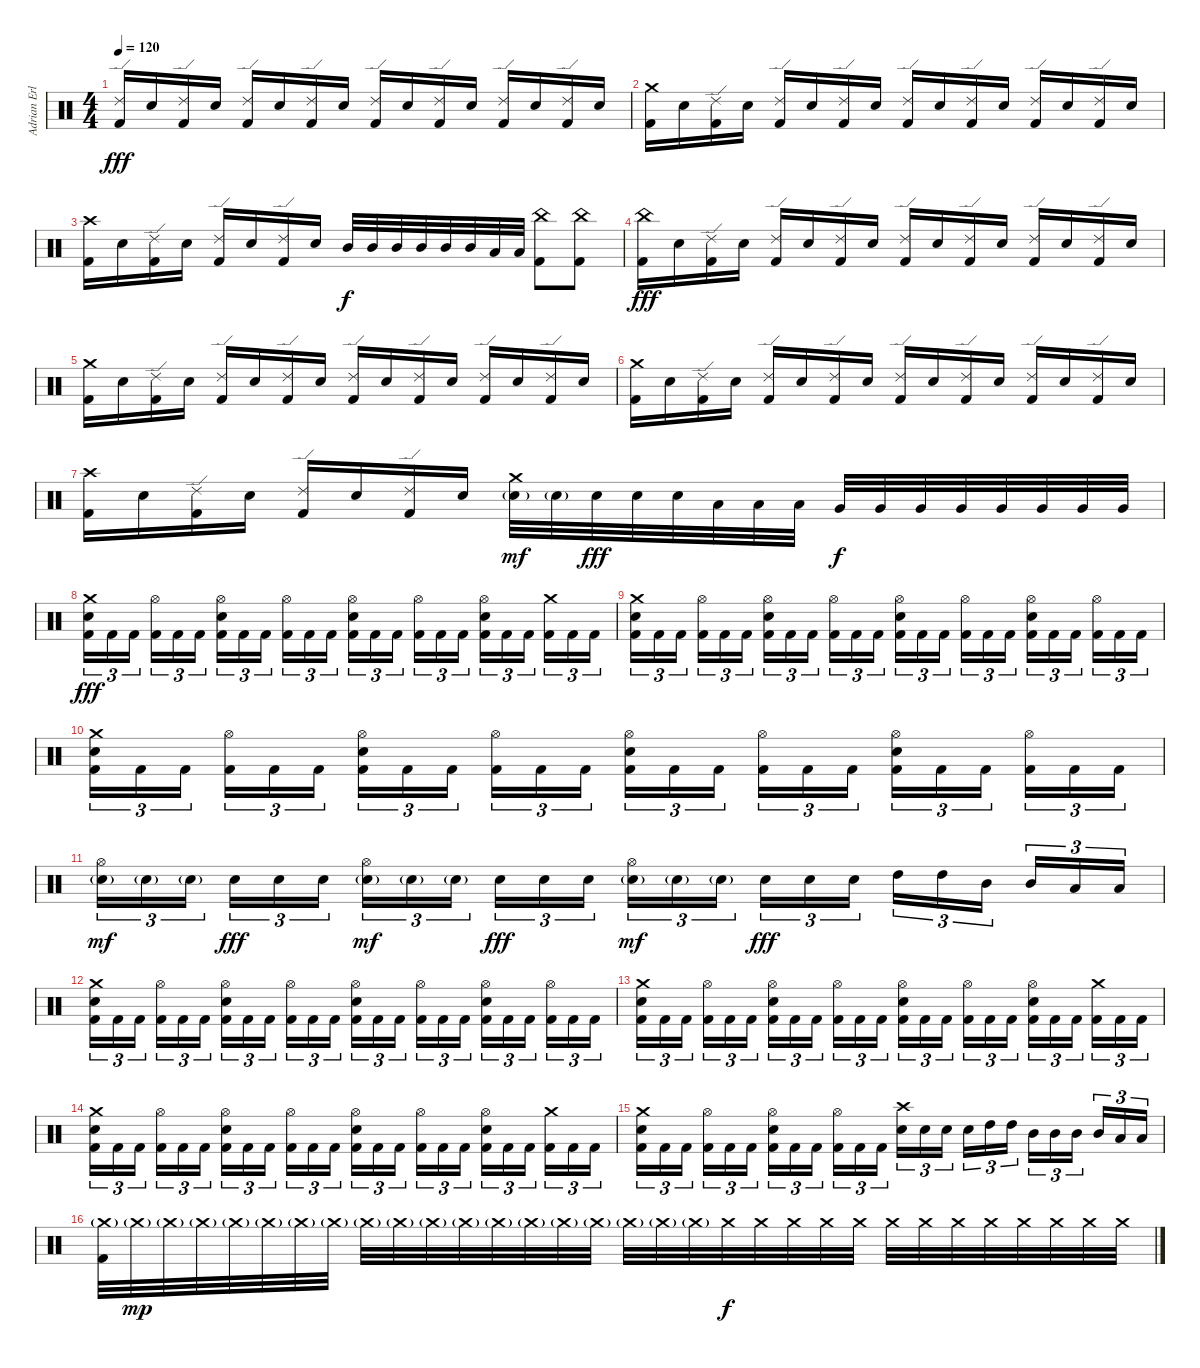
\track ("Adrian Erlandsson" "Adrian Erl") {instrument percussion}
\staff {score}
\articulation defaults
\ts (4 4)
\tempo 120
\clef neutral
\ks c
("Ride (edge) 2" "Kick (hit) 2").16{dy fff} "Electric Snare (hit)".16 ("Ride (edge) 2" "Kick (hit) 2").16 "Electric Snare (hit)".16 ("Ride (edge) 2" "Kick (hit) 2").16 "Electric Snare (hit)".16 ("Ride (edge) 2" "Kick (hit) 2").16 "Electric Snare (hit)".16 ("Ride (edge) 2" "Kick (hit) 2").16 "Electric Snare (hit)".16 ("Ride (edge) 2" "Kick (hit) 2").16 "Electric Snare (hit)".16 ("Ride (edge) 2" "Kick (hit) 2").16 "Electric Snare (hit)".16 ("Ride (edge) 2" "Kick (hit) 2").16 "Electric Snare (hit)".16 |
("Crash medium (hit)" "Kick (hit) 2").16 "Electric Snare (hit)".16 ("Ride (edge) 2" "Kick (hit) 2").16 "Electric Snare (hit)".16 ("Ride (edge) 2" "Kick (hit) 2").16 "Electric Snare (hit)".16 ("Ride (edge) 2" "Kick (hit) 2").16 "Electric Snare (hit)".16 ("Ride (edge) 2" "Kick (hit) 2").16 "Electric Snare (hit)".16 ("Ride (edge) 2" "Kick (hit) 2").16 "Electric Snare (hit)".16 ("Ride (edge) 2" "Kick (hit) 2").16 "Electric Snare (hit)".16 ("Ride (edge) 2" "Kick (hit) 2").16 "Electric Snare (hit)".16 |
("Crash high (hit)" "Kick (hit) 2").16 "Electric Snare (hit)".16 ("Ride (edge) 2" "Kick (hit) 2").16 "Electric Snare (hit)".16 ("Ride (edge) 2" "Kick (hit) 2").16 "Electric Snare (hit)".16 ("Ride (edge) 2" "Kick (hit) 2").16 "Electric Snare (hit)".16 "Mid Tom (hit)".32{dy f} "Mid Tom (hit)".32 "Mid Tom (hit)".32 "Mid Tom (hit)".32 "Mid Tom (hit)".32 "Mid Tom (hit)".32 "Low Tom (hit)".32 "Low Tom (hit)".32 ("China (hit)" "Kick (hit) 2").8 ("China (hit)" "Kick (hit) 2").8 |
("China (hit)" "Kick (hit) 2").16{dy fff} "Electric Snare (hit)".16 ("Ride (edge) 2" "Kick (hit) 2").16 "Electric Snare (hit)".16 ("Ride (edge) 2" "Kick (hit) 2").16 "Electric Snare (hit)".16 ("Ride (edge) 2" "Kick (hit) 2").16 "Electric Snare (hit)".16 ("Ride (edge) 2" "Kick (hit) 2").16 "Electric Snare (hit)".16 ("Ride (edge) 2" "Kick (hit) 2").16 "Electric Snare (hit)".16 ("Ride (edge) 2" "Kick (hit) 2").16 "Electric Snare (hit)".16 ("Ride (edge) 2" "Kick (hit) 2").16 "Electric Snare (hit)".16 |
("Crash medium (hit)" "Kick (hit) 2").16 "Electric Snare (hit)".16 ("Ride (edge) 2" "Kick (hit) 2").16 "Electric Snare (hit)".16 ("Ride (edge) 2" "Kick (hit) 2").16 "Electric Snare (hit)".16 ("Ride (edge) 2" "Kick (hit) 2").16 "Electric Snare (hit)".16 ("Ride (edge) 2" "Kick (hit) 2").16 "Electric Snare (hit)".16 ("Ride (edge) 2" "Kick (hit) 2").16 "Electric Snare (hit)".16 ("Ride (edge) 2" "Kick (hit) 2").16 "Electric Snare (hit)".16 ("Ride (edge) 2" "Kick (hit) 2").16 "Electric Snare (hit)".16 |
("Crash medium (hit)" "Kick (hit) 2").16 "Electric Snare (hit)".16 ("Ride (edge) 2" "Kick (hit) 2").16 "Electric Snare (hit)".16 ("Ride (edge) 2" "Kick (hit) 2").16 "Electric Snare (hit)".16 ("Ride (edge) 2" "Kick (hit) 2").16 "Electric Snare (hit)".16 ("Ride (edge) 2" "Kick (hit) 2").16 "Electric Snare (hit)".16 ("Ride (edge) 2" "Kick (hit) 2").16 "Electric Snare (hit)".16 ("Ride (edge) 2" "Kick (hit) 2").16 "Electric Snare (hit)".16 ("Ride (edge) 2" "Kick (hit) 2").16 "Electric Snare (hit)".16 |
("Crash high (hit)" "Kick (hit) 2").16 "Electric Snare (hit)".16 ("Ride (edge) 2" "Kick (hit) 2").16 "Electric Snare (hit)".16 ("Ride (edge) 2" "Kick (hit) 2").16 "Electric Snare (hit)".16 ("Ride (edge) 2" "Kick (hit) 2").16 "Electric Snare (hit)".16 ("Crash medium (hit)" "Electric Snare (hit)"{g}).32{dy mf} "Electric Snare (hit)"{g}.32 "Electric Snare (hit)".32{dy fff} "Electric Snare (hit)".32 "Electric Snare (hit)".32 "Low Tom (hit)".32 "Low Tom (hit)".32 "Low Tom (hit)".32 "Very Low Tom (hit)".32{dy f} "Very Low Tom (hit)".32 "Very Low Tom (hit)".32 "Very Low Tom (hit)".32 "Very Low Tom (hit)".32 "Very Low Tom (hit)".32 "Very Low Tom (hit)".32 "Very Low Tom (hit)".32 |
("Crash medium (hit)" "Electric Snare (hit)" "Kick (hit) 2").16{tu (3 2) dy fff} "Kick (hit) 2".16{tu (3 2)} "Kick (hit) 2".16{tu (3 2) beam splitsecondary} ("Hi-Hat (open)" "Kick (hit) 2").16{tu (3 2)} "Kick (hit) 2".16{tu (3 2)} "Kick (hit) 2".16{tu (3 2)} ("Hi-Hat (open)" "Electric Snare (hit)" "Kick (hit) 2").16{tu (3 2)} "Kick (hit) 2".16{tu (3 2)} "Kick (hit) 2".16{tu (3 2) beam splitsecondary} ("Hi-Hat (open)" "Kick (hit) 2").16{tu (3 2)} "Kick (hit) 2".16{tu (3 2)} "Kick (hit) 2".16{tu (3 2)} ("Hi-Hat (open)" "Electric Snare (hit)" "Kick (hit) 2").16{tu (3 2)} "Kick (hit) 2".16{tu (3 2)} "Kick (hit) 2".16{tu (3 2) beam splitsecondary} ("Hi-Hat (open)" "Kick (hit) 2").16{tu (3 2)} "Kick (hit) 2".16{tu (3 2)} "Kick (hit) 2".16{tu (3 2)} ("Hi-Hat (open)" "Electric Snare (hit)" "Kick (hit) 2").16{tu (3 2)} "Kick (hit) 2".16{tu (3 2)} "Kick (hit) 2".16{tu (3 2) beam splitsecondary} ("Crash medium (hit)" "Kick (hit) 2").16{tu (3 2)} "Kick (hit) 2".16{tu (3 2)} "Kick (hit) 2".16{tu (3 2)} |
("Crash medium (hit)" "Electric Snare (hit)" "Kick (hit) 2").16{tu (3 2)} "Kick (hit) 2".16{tu (3 2)} "Kick (hit) 2".16{tu (3 2) beam splitsecondary} ("Hi-Hat (open)" "Kick (hit) 2").16{tu (3 2)} "Kick (hit) 2".16{tu (3 2)} "Kick (hit) 2".16{tu (3 2)} ("Hi-Hat (open)" "Electric Snare (hit)" "Kick (hit) 2").16{tu (3 2)} "Kick (hit) 2".16{tu (3 2)} "Kick (hit) 2".16{tu (3 2) beam splitsecondary} ("Hi-Hat (open)" "Kick (hit) 2").16{tu (3 2)} "Kick (hit) 2".16{tu (3 2)} "Kick (hit) 2".16{tu (3 2)} ("Hi-Hat (open)" "Electric Snare (hit)" "Kick (hit) 2").16{tu (3 2)} "Kick (hit) 2".16{tu (3 2)} "Kick (hit) 2".16{tu (3 2) beam splitsecondary} ("Hi-Hat (open)" "Kick (hit) 2").16{tu (3 2)} "Kick (hit) 2".16{tu (3 2)} "Kick (hit) 2".16{tu (3 2)} ("Hi-Hat (open)" "Electric Snare (hit)" "Kick (hit) 2").16{tu (3 2)} "Kick (hit) 2".16{tu (3 2)} "Kick (hit) 2".16{tu (3 2) beam splitsecondary} ("Hi-Hat (open)" "Kick (hit) 2").16{tu (3 2)} "Kick (hit) 2".16{tu (3 2)} "Kick (hit) 2".16{tu (3 2)} |
("Crash medium (hit)" "Electric Snare (hit)" "Kick (hit) 2").16{tu (3 2)} "Kick (hit) 2".16{tu (3 2)} "Kick (hit) 2".16{tu (3 2) beam splitsecondary} ("Hi-Hat (open)" "Kick (hit) 2").16{tu (3 2)} "Kick (hit) 2".16{tu (3 2)} "Kick (hit) 2".16{tu (3 2)} ("Hi-Hat (open)" "Electric Snare (hit)" "Kick (hit) 2").16{tu (3 2)} "Kick (hit) 2".16{tu (3 2)} "Kick (hit) 2".16{tu (3 2) beam splitsecondary} ("Hi-Hat (open)" "Kick (hit) 2").16{tu (3 2)} "Kick (hit) 2".16{tu (3 2)} "Kick (hit) 2".16{tu (3 2)} ("Hi-Hat (open)" "Electric Snare (hit)" "Kick (hit) 2").16{tu (3 2)} "Kick (hit) 2".16{tu (3 2)} "Kick (hit) 2".16{tu (3 2) beam splitsecondary} ("Hi-Hat (open)" "Kick (hit) 2").16{tu (3 2)} "Kick (hit) 2".16{tu (3 2)} "Kick (hit) 2".16{tu (3 2)} ("Hi-Hat (open)" "Electric Snare (hit)" "Kick (hit) 2").16{tu (3 2)} "Kick (hit) 2".16{tu (3 2)} "Kick (hit) 2".16{tu (3 2) beam splitsecondary} ("Hi-Hat (open)" "Kick (hit) 2").16{tu (3 2)} "Kick (hit) 2".16{tu (3 2)} "Kick (hit) 2".16{tu (3 2)} |
("Hi-Hat (open)" "Electric Snare (hit)"{g}).16{tu (3 2) dy mf} "Electric Snare (hit)"{g}.16{tu (3 2)} "Electric Snare (hit)"{g}.16{tu (3 2) beam splitsecondary} "Electric Snare (hit)".16{tu (3 2) dy fff} "Electric Snare (hit)".16{tu (3 2)} "Electric Snare (hit)".16{tu (3 2)} ("Hi-Hat (open)" "Electric Snare (hit)"{g}).16{tu (3 2) dy mf} "Electric Snare (hit)"{g}.16{tu (3 2)} "Electric Snare (hit)"{g}.16{tu (3 2) beam splitsecondary} "Electric Snare (hit)".16{tu (3 2) dy fff} "Electric Snare (hit)".16{tu (3 2)} "Electric Snare (hit)".16{tu (3 2)} ("Hi-Hat (open)" "Electric Snare (hit)"{g}).16{tu (3 2) dy mf} "Electric Snare (hit)"{g}.16{tu (3 2)} "Electric Snare (hit)"{g}.16{tu (3 2) beam splitsecondary} "Electric Snare (hit)".16{tu (3 2) dy fff} "Electric Snare (hit)".16{tu (3 2)} "Electric Snare (hit)".16{tu (3 2)} "High Tom (hit)".16{tu (3 2)} "High Tom (hit)".16{tu (3 2)} "Mid Tom (hit)".16{tu (3 2) beam splitsecondary} "Mid Tom (hit)".16{tu (3 2)} "Low Tom (hit)".16{tu (3 2)} "Low Tom (hit)".16{tu (3 2)} |
("Crash medium (hit)" "Electric Snare (hit)" "Kick (hit) 2").16{tu (3 2)} "Kick (hit) 2".16{tu (3 2)} "Kick (hit) 2".16{tu (3 2) beam splitsecondary} ("Hi-Hat (open)" "Kick (hit) 2").16{tu (3 2)} "Kick (hit) 2".16{tu (3 2)} "Kick (hit) 2".16{tu (3 2)} ("Hi-Hat (open)" "Electric Snare (hit)" "Kick (hit) 2").16{tu (3 2)} "Kick (hit) 2".16{tu (3 2)} "Kick (hit) 2".16{tu (3 2) beam splitsecondary} ("Hi-Hat (open)" "Kick (hit) 2").16{tu (3 2)} "Kick (hit) 2".16{tu (3 2)} "Kick (hit) 2".16{tu (3 2)} ("Hi-Hat (open)" "Electric Snare (hit)" "Kick (hit) 2").16{tu (3 2)} "Kick (hit) 2".16{tu (3 2)} "Kick (hit) 2".16{tu (3 2) beam splitsecondary} ("Hi-Hat (open)" "Kick (hit) 2").16{tu (3 2)} "Kick (hit) 2".16{tu (3 2)} "Kick (hit) 2".16{tu (3 2)} ("Hi-Hat (open)" "Electric Snare (hit)" "Kick (hit) 2").16{tu (3 2)} "Kick (hit) 2".16{tu (3 2)} "Kick (hit) 2".16{tu (3 2) beam splitsecondary} ("Hi-Hat (open)" "Kick (hit) 2").16{tu (3 2)} "Kick (hit) 2".16{tu (3 2)} "Kick (hit) 2".16{tu (3 2)} |
("Crash medium (hit)" "Electric Snare (hit)" "Kick (hit) 2").16{tu (3 2)} "Kick (hit) 2".16{tu (3 2)} "Kick (hit) 2".16{tu (3 2) beam splitsecondary} ("Hi-Hat (open)" "Kick (hit) 2").16{tu (3 2)} "Kick (hit) 2".16{tu (3 2)} "Kick (hit) 2".16{tu (3 2)} ("Hi-Hat (open)" "Electric Snare (hit)" "Kick (hit) 2").16{tu (3 2)} "Kick (hit) 2".16{tu (3 2)} "Kick (hit) 2".16{tu (3 2) beam splitsecondary} ("Hi-Hat (open)" "Kick (hit) 2").16{tu (3 2)} "Kick (hit) 2".16{tu (3 2)} "Kick (hit) 2".16{tu (3 2)} ("Hi-Hat (open)" "Electric Snare (hit)" "Kick (hit) 2").16{tu (3 2)} "Kick (hit) 2".16{tu (3 2)} "Kick (hit) 2".16{tu (3 2) beam splitsecondary} ("Hi-Hat (open)" "Kick (hit) 2").16{tu (3 2)} "Kick (hit) 2".16{tu (3 2)} "Kick (hit) 2".16{tu (3 2)} ("Hi-Hat (open)" "Electric Snare (hit)" "Kick (hit) 2").16{tu (3 2)} "Kick (hit) 2".16{tu (3 2)} "Kick (hit) 2".16{tu (3 2) beam splitsecondary} ("Crash medium (hit)" "Kick (hit) 2").16{tu (3 2)} "Kick (hit) 2".16{tu (3 2)} "Kick (hit) 2".16{tu (3 2)} |
("Crash medium (hit)" "Electric Snare (hit)" "Kick (hit) 2").16{tu (3 2)} "Kick (hit) 2".16{tu (3 2)} "Kick (hit) 2".16{tu (3 2) beam splitsecondary} ("Hi-Hat (open)" "Kick (hit) 2").16{tu (3 2)} "Kick (hit) 2".16{tu (3 2)} "Kick (hit) 2".16{tu (3 2)} ("Hi-Hat (open)" "Electric Snare (hit)" "Kick (hit) 2").16{tu (3 2)} "Kick (hit) 2".16{tu (3 2)} "Kick (hit) 2".16{tu (3 2) beam splitsecondary} ("Hi-Hat (open)" "Kick (hit) 2").16{tu (3 2)} "Kick (hit) 2".16{tu (3 2)} "Kick (hit) 2".16{tu (3 2)} ("Hi-Hat (open)" "Electric Snare (hit)" "Kick (hit) 2").16{tu (3 2)} "Kick (hit) 2".16{tu (3 2)} "Kick (hit) 2".16{tu (3 2) beam splitsecondary} ("Hi-Hat (open)" "Kick (hit) 2").16{tu (3 2)} "Kick (hit) 2".16{tu (3 2)} "Kick (hit) 2".16{tu (3 2)} ("Hi-Hat (open)" "Electric Snare (hit)" "Kick (hit) 2").16{tu (3 2)} "Kick (hit) 2".16{tu (3 2)} "Kick (hit) 2".16{tu (3 2) beam splitsecondary} ("Crash medium (hit)" "Kick (hit) 2").16{tu (3 2)} "Kick (hit) 2".16{tu (3 2)} "Kick (hit) 2".16{tu (3 2)} |
("Crash medium (hit)" "Electric Snare (hit)" "Kick (hit) 2").16{tu (3 2)} "Kick (hit) 2".16{tu (3 2)} "Kick (hit) 2".16{tu (3 2) beam splitsecondary} ("Hi-Hat (open)" "Kick (hit) 2").16{tu (3 2)} "Kick (hit) 2".16{tu (3 2)} "Kick (hit) 2".16{tu (3 2)} ("Hi-Hat (open)" "Electric Snare (hit)" "Kick (hit) 2").16{tu (3 2)} "Kick (hit) 2".16{tu (3 2)} "Kick (hit) 2".16{tu (3 2) beam splitsecondary} ("Hi-Hat (open)" "Kick (hit) 2").16{tu (3 2)} "Kick (hit) 2".16{tu (3 2)} "Kick (hit) 2".16{tu (3 2)} ("Crash high (hit)" "Electric Snare (hit)").16{tu (3 2)} "Electric Snare (hit)".16{tu (3 2)} "Electric Snare (hit)".16{tu (3 2) beam splitsecondary} "Electric Snare (hit)".16{tu (3 2)} "High Tom (hit)".16{tu (3 2)} "High Tom (hit)".16{tu (3 2)} "Mid Tom (hit)".16{tu (3 2)} "Mid Tom (hit)".16{tu (3 2)} "Mid Tom (hit)".16{tu (3 2) beam splitsecondary} "Mid Tom (hit)".16{tu (3 2)} "Low Tom (hit)".16{tu (3 2)} "Low Tom (hit)".16{tu (3 2)} |
("Crash medium (hit)"{g} "Kick (hit) 2").32 "Crash medium (hit)"{g}.32{dy mp} "Crash medium (hit)"{g}.32 "Crash medium (hit)"{g}.32 "Crash medium (hit)"{g}.32 "Crash medium (hit)"{g}.32 "Crash medium (hit)"{g}.32 "Crash medium (hit)"{g}.32 "Crash medium (hit)"{g}.32 "Crash medium (hit)"{g}.32 "Crash medium (hit)"{g}.32 "Crash medium (hit)"{g}.32 "Crash medium (hit)"{g}.32 "Crash medium (hit)"{g}.32 "Crash medium (hit)"{g}.32 "Crash medium (hit)"{g}.32 "Crash medium (hit)"{g}.32 "Crash medium (hit)"{g}.32 "Crash medium (hit)"{g}.32 "Crash medium (hit)".32{dy f} "Crash medium (hit)".32 "Crash medium (hit)".32 "Crash medium (hit)".32 "Crash medium (hit)".32 "Crash medium (hit)".32 "Crash medium (hit)".32 "Crash medium (hit)".32 "Crash medium (hit)".32 "Crash medium (hit)".32 "Crash medium (hit)".32 "Crash medium (hit)".32 "Crash medium (hit)".32
